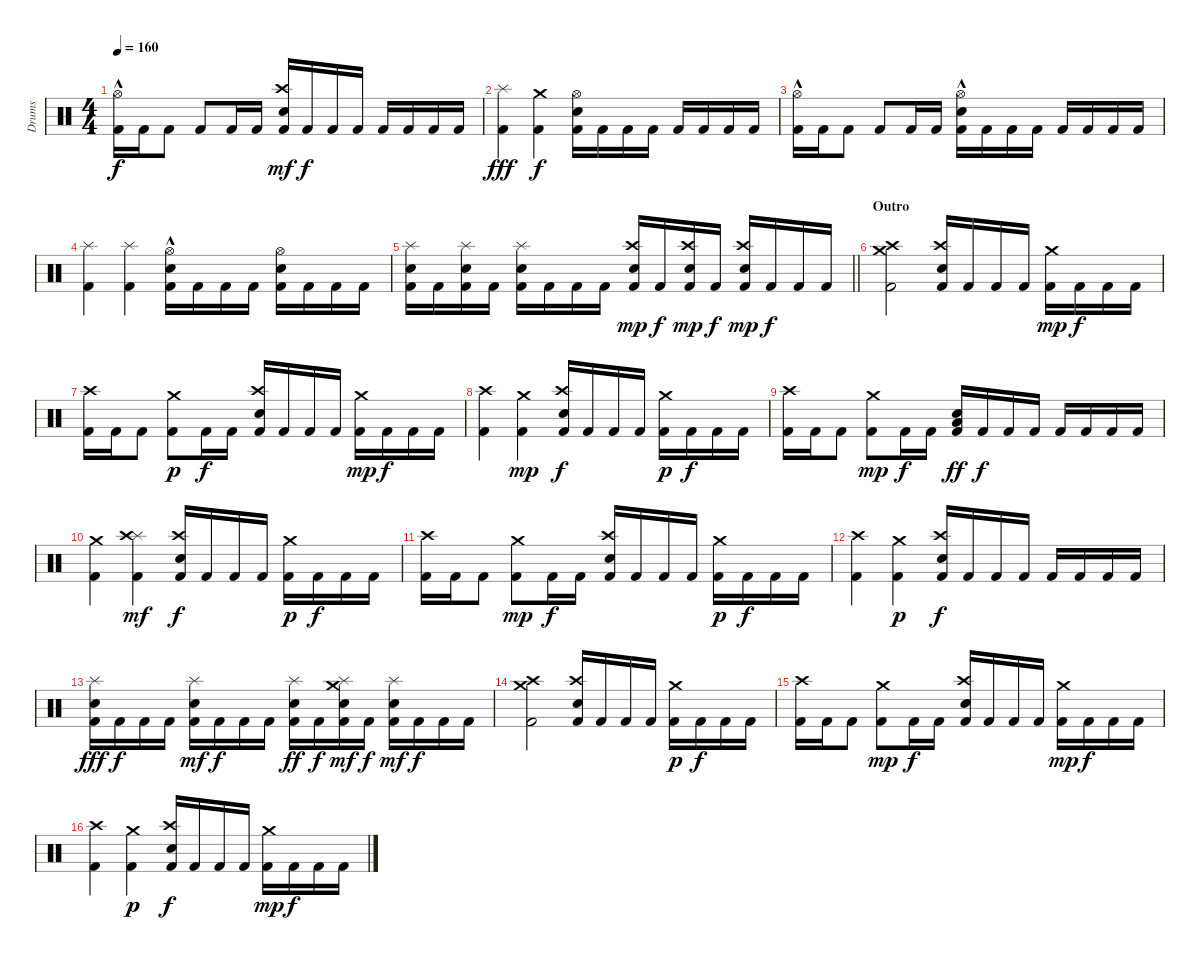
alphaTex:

\track ("Drums" "Drums") {instrument percussion}
\staff {score}
\articulation defaults
\ts (4 4)
\tempo 160
\clef neutral
\ks c
("Hi-Hat (open)"{hac} "Kick (hit) 2").16{dy f} "Kick (hit) 2".16 "Kick (hit) 2".8 "Kick (hit) 2".8 "Kick (hit) 2".16 "Kick (hit) 2".16 ("Crash high (hit)" "Snare (hit) 2" "Kick (hit) 2").16{dy mf} "Kick (hit) 2".16{dy f} "Kick (hit) 2".16 "Kick (hit) 2".16 "Kick (hit) 2".16 "Kick (hit) 2".16 "Kick (hit) 2".16 "Kick (hit) 2".16 |
("Splash (hit)" "Kick (hit) 2").4{dy fff} ("Crash medium (hit)" "Kick (hit) 2").4{dy f} ("Hi-Hat (open)" "Snare (hit) 2" "Kick (hit) 2").16 "Kick (hit) 2".16 "Kick (hit) 2".16 "Kick (hit) 2".16 "Kick (hit) 2".16 "Kick (hit) 2".16 "Kick (hit) 2".16 "Kick (hit) 2".16 |
("Hi-Hat (open)"{hac} "Kick (hit) 2").16 "Kick (hit) 2".16 "Kick (hit) 2".8 "Kick (hit) 2".8 "Kick (hit) 2".16 "Kick (hit) 2".16 ("Hi-Hat (open)"{hac} "Snare (hit) 2" "Kick (hit) 2").16 "Kick (hit) 2".16 "Kick (hit) 2".16 "Kick (hit) 2".16 "Kick (hit) 2".16 "Kick (hit) 2".16 "Kick (hit) 2".16 "Kick (hit) 2".16 |
("Splash (hit)" "Kick (hit) 2").4 ("Splash (hit)" "Kick (hit) 2").4 ("Hi-Hat (open)"{hac} "Snare (hit) 2" "Kick (hit) 2").16 "Kick (hit) 2".16 "Kick (hit) 2".16 "Kick (hit) 2".16 ("Hi-Hat (open)" "Snare (hit) 2" "Kick (hit) 2").16 "Kick (hit) 2".16 "Kick (hit) 2".16 "Kick (hit) 2".16 |
\barLineRight lightlight
("Splash (hit)" "Snare (hit) 2" "Kick (hit) 2").16 "Kick (hit) 2".16 ("Splash (hit)" "Snare (hit) 2" "Kick (hit) 2").16 "Kick (hit) 2".16 ("Splash (hit)" "Snare (hit) 2" "Kick (hit) 2").16 "Kick (hit) 2".16 "Kick (hit) 2".16 "Kick (hit) 2".16 ("Crash high (hit)" "Snare (hit) 2" "Kick (hit) 2").16{dy mp} "Kick (hit) 2".16{dy f} ("Crash high (hit)" "Snare (hit) 2" "Kick (hit) 2").16{dy mp} "Kick (hit) 2".16{dy f} ("Crash high (hit)" "Snare (hit) 2" "Kick (hit) 2").16{dy mp} "Kick (hit) 2".16{dy f} "Kick (hit) 2".16 "Kick (hit) 2".16 |
\section ("" "Outro")
("Crash medium (hit)" "Crash high (hit)" "Kick (hit) 2").2 ("Crash high (hit)" "Snare (hit) 2" "Kick (hit) 2").16 "Kick (hit) 2".16 "Kick (hit) 2".16 "Kick (hit) 2".16 ("Crash medium (hit)" "Kick (hit) 2").16{dy mp} "Kick (hit) 2".16{dy f} "Kick (hit) 2".16 "Kick (hit) 2".16 |
("Crash high (hit)" "Kick (hit) 2").16 "Kick (hit) 2".16 "Kick (hit) 2".8 ("Crash medium (hit)" "Kick (hit) 2").8{dy p} "Kick (hit) 2".16{dy f} "Kick (hit) 2".16 ("Crash high (hit)" "Snare (hit) 2" "Kick (hit) 2").16 "Kick (hit) 2".16 "Kick (hit) 2".16 "Kick (hit) 2".16 ("Crash medium (hit)" "Kick (hit) 2").16{dy mp} "Kick (hit) 2".16{dy f} "Kick (hit) 2".16 "Kick (hit) 2".16 |
("Crash high (hit)" "Kick (hit) 2").4 ("Crash medium (hit)" "Kick (hit) 2").4{dy mp} ("Crash high (hit)" "Snare (hit) 2" "Kick (hit) 2").16{dy f} "Kick (hit) 2".16 "Kick (hit) 2".16 "Kick (hit) 2".16 ("Crash medium (hit)" "Kick (hit) 2").16{dy p} "Kick (hit) 2".16{dy f} "Kick (hit) 2".16 "Kick (hit) 2".16 |
("Crash high (hit)" "Kick (hit) 2").16 "Kick (hit) 2".16 "Kick (hit) 2".8 ("Crash medium (hit)" "Kick (hit) 2").8{dy mp} "Kick (hit) 2".16{dy f} "Kick (hit) 2".16 ("Low Floor Tom (hit)" "Snare (hit) 2" "Kick (hit) 2").16{dy ff} "Kick (hit) 2".16{dy f} "Kick (hit) 2".16 "Kick (hit) 2".16 "Kick (hit) 2".16 "Kick (hit) 2".16 "Kick (hit) 2".16 "Kick (hit) 2".16 |
("Crash medium (hit)" "Kick (hit) 2").4 ("Splash (hit)" "Crash high (hit)" "Kick (hit) 2").4{dy mf} ("Crash high (hit)" "Snare (hit) 2" "Kick (hit) 2").16{dy f} "Kick (hit) 2".16 "Kick (hit) 2".16 "Kick (hit) 2".16 ("Crash medium (hit)" "Kick (hit) 2").16{dy p} "Kick (hit) 2".16{dy f} "Kick (hit) 2".16 "Kick (hit) 2".16 |
("Crash high (hit)" "Kick (hit) 2").16 "Kick (hit) 2".16 "Kick (hit) 2".8 ("Crash medium (hit)" "Kick (hit) 2").8{dy mp} "Kick (hit) 2".16{dy f} "Kick (hit) 2".16 ("Crash high (hit)" "Snare (hit) 2" "Kick (hit) 2").16 "Kick (hit) 2".16 "Kick (hit) 2".16 "Kick (hit) 2".16 ("Crash medium (hit)" "Kick (hit) 2").16{dy p} "Kick (hit) 2".16{dy f} "Kick (hit) 2".16 "Kick (hit) 2".16 |
("Crash high (hit)" "Kick (hit) 2").4 ("Crash medium (hit)" "Kick (hit) 2").4{dy p} ("Crash high (hit)" "Snare (hit) 2" "Kick (hit) 2").16{dy f} "Kick (hit) 2".16 "Kick (hit) 2".16 "Kick (hit) 2".16 "Kick (hit) 2".16 "Kick (hit) 2".16 "Kick (hit) 2".16 "Kick (hit) 2".16 |
("Splash (hit)" "Snare (hit) 2" "Kick (hit) 2").16{dy fff} "Kick (hit) 2".16{dy f} "Kick (hit) 2".16 "Kick (hit) 2".16 ("Splash (hit)" "Snare (hit) 2" "Kick (hit) 2").16{dy mf} "Kick (hit) 2".16{dy f} "Kick (hit) 2".16 "Kick (hit) 2".16 ("Splash (hit)" "Snare (hit) 2" "Kick (hit) 2").16{dy ff} "Kick (hit) 2".16{dy f} ("Splash (hit)" "Crash medium (hit)" "Snare (hit) 2" "Kick (hit) 2").16{dy mf} "Kick (hit) 2".16{dy f} ("Splash (hit)" "Snare (hit) 2" "Kick (hit) 2").16{dy mf} "Kick (hit) 2".16{dy f} "Kick (hit) 2".16 "Kick (hit) 2".16 |
("Crash medium (hit)" "Crash high (hit)" "Kick (hit) 2").2 ("Crash high (hit)" "Snare (hit) 2" "Kick (hit) 2").16 "Kick (hit) 2".16 "Kick (hit) 2".16 "Kick (hit) 2".16 ("Crash medium (hit)" "Kick (hit) 2").16{dy p} "Kick (hit) 2".16{dy f} "Kick (hit) 2".16 "Kick (hit) 2".16 |
("Crash high (hit)" "Kick (hit) 2").16 "Kick (hit) 2".16 "Kick (hit) 2".8 ("Crash medium (hit)" "Kick (hit) 2").8{dy mp} "Kick (hit) 2".16{dy f} "Kick (hit) 2".16 ("Crash high (hit)" "Snare (hit) 2" "Kick (hit) 2").16 "Kick (hit) 2".16 "Kick (hit) 2".16 "Kick (hit) 2".16 ("Crash medium (hit)" "Kick (hit) 2").16{dy mp} "Kick (hit) 2".16{dy f} "Kick (hit) 2".16 "Kick (hit) 2".16 |
("Crash high (hit)" "Kick (hit) 2").4 ("Crash medium (hit)" "Kick (hit) 2").4{dy p} ("Crash high (hit)" "Snare (hit) 2" "Kick (hit) 2").16{dy f} "Kick (hit) 2".16 "Kick (hit) 2".16 "Kick (hit) 2".16 ("Crash medium (hit)" "Kick (hit) 2").16{dy mp} "Kick (hit) 2".16{dy f} "Kick (hit) 2".16 "Kick (hit) 2".16
